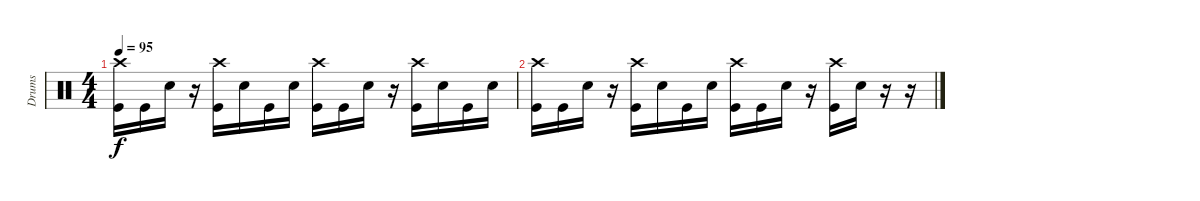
\track ("Drums" "Drums") {instrument percussion}
\staff {score}
\articulation defaults
\ts (4 4)
\tempo 95
\clef neutral
\ks c
("Crash high (hit)" "Kick (hit)").16{dy f} "Kick (hit)".16 "Snare (hit) 2".16 r.16 ("Crash high (hit)" "Kick (hit)").16 "Snare (hit) 2".16 "Kick (hit)".16 "Snare (hit) 2".16 ("Crash high (hit)" "Kick (hit)").16 "Kick (hit)".16 "Snare (hit) 2".16 r.16 ("Crash high (hit)" "Kick (hit)").16 "Snare (hit) 2".16 "Kick (hit)".16 "Snare (hit) 2".16 |
("Crash high (hit)" "Kick (hit)").16 "Kick (hit)".16 "Snare (hit) 2".16 r.16 ("Crash high (hit)" "Kick (hit)").16 "Snare (hit) 2".16 "Kick (hit)".16 "Snare (hit) 2".16 ("Crash high (hit)" "Kick (hit)").16 "Kick (hit)".16 "Snare (hit) 2".16 r.16 ("Crash high (hit)" "Kick (hit)").16 "Snare (hit) 2".16 r.16 r.16
